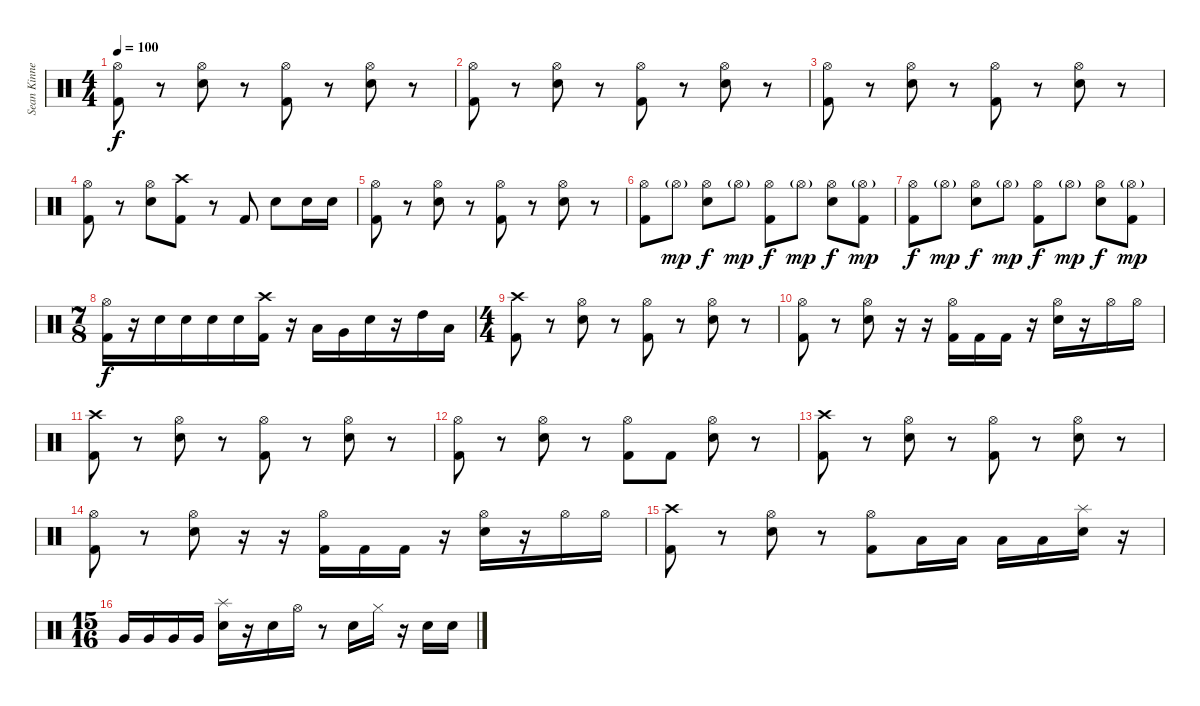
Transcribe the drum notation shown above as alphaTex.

\track ("Sean Kinney" "Sean Kinne") {instrument percussion}
\staff {score}
\articulation defaults
\ts (4 4)
\tempo 100
\clef neutral
\ks c
("Hi-Hat (open)" "Kick (hit) 2").8{dy f} r.8 ("Hi-Hat (open)" "Snare (hit) 2").8 r.8 ("Hi-Hat (open)" "Kick (hit) 2").8 r.8 ("Hi-Hat (open)" "Snare (hit) 2").8 r.8 |
("Hi-Hat (open)" "Kick (hit) 2").8 r.8 ("Hi-Hat (open)" "Snare (hit) 2").8 r.8 ("Hi-Hat (open)" "Kick (hit) 2").8 r.8 ("Hi-Hat (open)" "Snare (hit) 2").8 r.8 |
("Hi-Hat (open)" "Kick (hit) 2").8 r.8 ("Hi-Hat (open)" "Snare (hit) 2").8 r.8 ("Hi-Hat (open)" "Kick (hit) 2").8 r.8 ("Hi-Hat (open)" "Snare (hit) 2").8 r.8 |
("Hi-Hat (open)" "Kick (hit) 2").8 r.8 ("Hi-Hat (open)" "Snare (hit) 2").8 ("Crash high (hit)" "Kick (hit) 2").8 r.8 "Kick (hit) 2".8 "Snare (hit) 2".8 "Snare (hit) 2".16 "Snare (hit) 2".16 |
("Hi-Hat (open)" "Kick (hit) 2").8 r.8 ("Hi-Hat (open)" "Snare (hit) 2").8 r.8 ("Hi-Hat (open)" "Kick (hit) 2").8 r.8 ("Hi-Hat (open)" "Snare (hit) 2").8 r.8 |
("Hi-Hat (open)" "Kick (hit) 2").8 "Hi-Hat (open)"{g}.8{dy mp} ("Hi-Hat (open)" "Snare (hit) 2").8{dy f} "Hi-Hat (open)"{g}.8{dy mp} ("Hi-Hat (open)" "Kick (hit) 2").8{dy f} "Hi-Hat (open)"{g}.8{dy mp} ("Hi-Hat (open)" "Snare (hit) 2").8{dy f} ("Hi-Hat (open)"{g} "Kick (hit) 2").8{dy mp} |
("Hi-Hat (open)" "Kick (hit) 2").8{dy f} "Hi-Hat (open)"{g}.8{dy mp} ("Hi-Hat (open)" "Snare (hit) 2").8{dy f} "Hi-Hat (open)"{g}.8{dy mp} ("Hi-Hat (open)" "Kick (hit) 2").8{dy f} "Hi-Hat (open)"{g}.8{dy mp} ("Hi-Hat (open)" "Snare (hit) 2").8{dy f} ("Hi-Hat (open)"{g} "Kick (hit) 2").8{dy mp} |
\ts (7 8)
("Hi-Hat (open)" "Kick (hit) 2").16{dy f} r.16 "Snare (hit) 2".16 "Snare (hit) 2".16 "Snare (hit) 2".16 "Snare (hit) 2".16 ("Crash high (hit)" "Kick (hit) 2").16 r.16 "Low Tom (hit)".16 "Very Low Tom (hit)".16 "Snare (hit) 2".16 r.16 "High Tom (hit)".16 "Low Tom (hit)".16 |
\ts (4 4)
("Crash high (hit)" "Kick (hit) 2").8 r.8 ("Hi-Hat (open)" "Snare (hit) 2").8 r.8 ("Hi-Hat (open)" "Kick (hit) 2").8 r.8 ("Hi-Hat (open)" "Snare (hit) 2").8 r.8 |
("Hi-Hat (open)" "Kick (hit) 2").8 r.8 ("Hi-Hat (open)" "Snare (hit) 2").8 r.16 r.16 ("Hi-Hat (open)" "Kick (hit) 2").16 "Kick (hit) 2".16 "Kick (hit) 2".16 r.16 ("Hi-Hat (open)" "Snare (hit) 2").16 r.16 "Hi-Hat (open)".16 "Hi-Hat (open)".16 |
("Crash high (hit)" "Kick (hit) 2").8 r.8 ("Hi-Hat (open)" "Snare (hit) 2").8 r.8 ("Hi-Hat (open)" "Kick (hit) 2").8 r.8 ("Hi-Hat (open)" "Snare (hit) 2").8 r.8 |
("Hi-Hat (open)" "Kick (hit) 2").8 r.8 ("Hi-Hat (open)" "Snare (hit) 2").8 r.8 ("Hi-Hat (open)" "Kick (hit) 2").8 "Kick (hit) 2".8 ("Hi-Hat (open)" "Snare (hit) 2").8 r.8 |
("Crash high (hit)" "Kick (hit) 2").8 r.8 ("Hi-Hat (open)" "Snare (hit) 2").8 r.8 ("Hi-Hat (open)" "Kick (hit) 2").8 r.8 ("Hi-Hat (open)" "Snare (hit) 2").8 r.8 |
("Hi-Hat (open)" "Kick (hit) 2").8 r.8 ("Hi-Hat (open)" "Snare (hit) 2").8 r.16 r.16 ("Hi-Hat (open)" "Kick (hit) 2").16 "Kick (hit) 2".16 "Kick (hit) 2".16 r.16 ("Hi-Hat (open)" "Snare (hit) 2").16 r.16 "Hi-Hat (open)".16 "Hi-Hat (open)".16 |
("Crash high (hit)" "Kick (hit) 2").8 r.8 ("Hi-Hat (open)" "Snare (hit) 2").8 r.8 ("Hi-Hat (open)" "Kick (hit) 2").8 "Low Tom (hit)".16 "Low Tom (hit)".16 "Low Tom (hit)".16 "Low Tom (hit)".16 ("Splash (hit)" "Snare (hit) 2").16 r.16 |
\ts (15 16)
"Very Low Tom (hit)".16 "Very Low Tom (hit)".16 "Very Low Tom (hit)".16 "Very Low Tom (hit)".16 ("Splash (hit)" "Snare (hit) 2").16 r.16 "Snare (hit) 2".16 "Hi-Hat (open)".16 r.8 "Snare (hit) 2".16 "Hi-Hat (closed)".16 r.16 "Snare (hit) 2".16 "Snare (hit) 2".16
